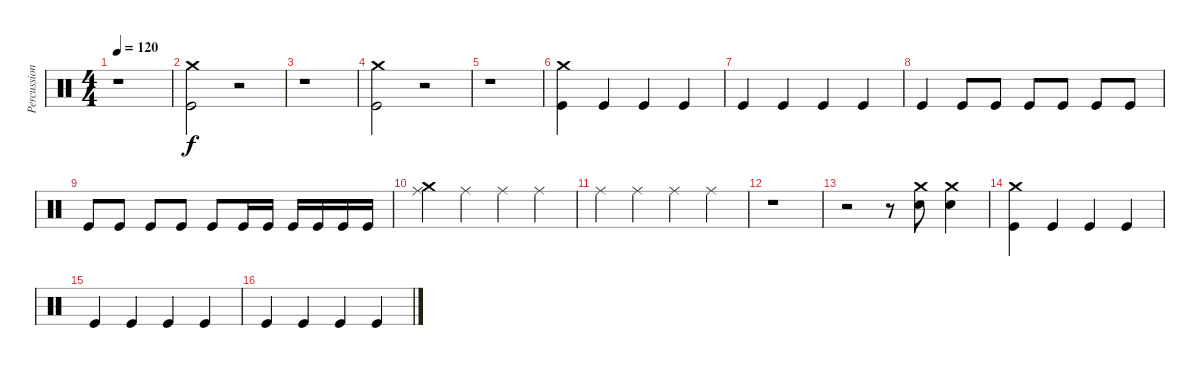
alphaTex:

\track ("Percussion" "Percussion") {instrument percussion}
\staff {score}
\articulation defaults
\ts (4 4)
\tempo 120
\clef neutral
\ks c
r.1{dy f} |
("Crash medium (hit)" "Kick (hit)").2 r.2 |
r.1 |
("Crash medium (hit)" "Kick (hit)").2 r.2 |
r.1 |
("Crash medium (hit)" "Kick (hit)").4 "Kick (hit)".4 "Kick (hit)".4 "Kick (hit)".4 |
"Kick (hit)".4 "Kick (hit)".4 "Kick (hit)".4 "Kick (hit)".4 |
"Kick (hit)".4 "Kick (hit)".8 "Kick (hit)".8 "Kick (hit)".8 "Kick (hit)".8 "Kick (hit)".8 "Kick (hit)".8 |
"Kick (hit)".8 "Kick (hit)".8 "Kick (hit)".8 "Kick (hit)".8 "Kick (hit)".8 "Kick (hit)".16 "Kick (hit)".16 "Kick (hit)".16 "Kick (hit)".16 "Kick (hit)".16 "Kick (hit)".16 |
("Crash medium (hit)" "Ride (middle)").4 "Ride (middle)".4 "Ride (middle)".4 "Ride (middle)".4 |
"Ride (middle)".4 "Ride (middle)".4 "Ride (middle)".4 "Ride (middle)".4 |
r.1 |
r.2 r.8 ("Crash medium (hit)" "Electric Snare (hit)").8 ("Crash medium (hit)" "Electric Snare (hit)").4 |
("Crash medium (hit)" "Kick (hit)").4 "Kick (hit)".4 "Kick (hit)".4 "Kick (hit)".4 |
"Kick (hit)".4 "Kick (hit)".4 "Kick (hit)".4 "Kick (hit)".4 |
"Kick (hit)".4 "Kick (hit)".4 "Kick (hit)".4 "Kick (hit)".4
